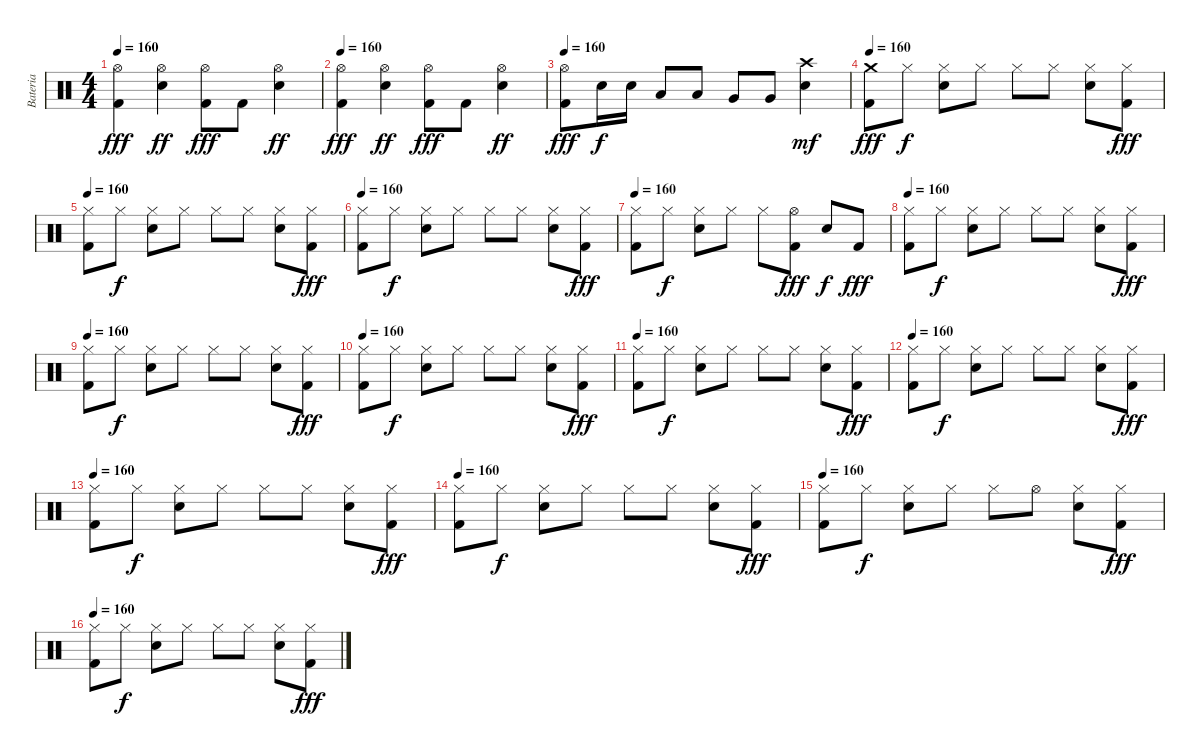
\track ("Bateria" "Bateria") {instrument percussion}
\staff {score}
\articulation defaults
\ts (4 4)
\tempo 160
\clef neutral
\ks c
("Hi-Hat (open)" "Kick (hit) 2").4{dy fff} ("Hi-Hat (open)" "Electric Snare (hit)").4{dy ff} ("Hi-Hat (open)" "Kick (hit) 2").8{dy fff} "Kick (hit) 2".8 ("Hi-Hat (open)" "Electric Snare (hit)").4{dy ff} |
\tempo 160
("Hi-Hat (open)" "Kick (hit) 2").4{dy fff} ("Hi-Hat (open)" "Electric Snare (hit)").4{dy ff} ("Hi-Hat (open)" "Kick (hit) 2").8{dy fff} "Kick (hit) 2".8 ("Hi-Hat (open)" "Electric Snare (hit)").4{dy ff} |
\tempo 160
("Hi-Hat (open)" "Kick (hit) 2").8{dy fff} "Electric Snare (hit)".16{dy f} "Electric Snare (hit)".16 "Low Tom (hit)".8 "Low Tom (hit)".8 "Very Low Tom (hit)".8 "Very Low Tom (hit)".8 ("Crash high (hit)" "Electric Snare (hit)").4{dy mf} |
\tempo 160
("Crash medium (hit)" "Kick (hit) 2").8{dy fff} "Hi-Hat (closed)".8{dy f} ("Hi-Hat (closed)" "Snare (hit) 2").8 "Hi-Hat (closed)".8 "Hi-Hat (closed)".8 "Hi-Hat (closed)".8 ("Hi-Hat (closed)" "Snare (hit) 2").8 ("Hi-Hat (closed)" "Kick (hit) 2").8{dy fff} |
\tempo 160
("Hi-Hat (closed)" "Kick (hit) 2").8 "Hi-Hat (closed)".8{dy f} ("Hi-Hat (closed)" "Snare (hit) 2").8 "Hi-Hat (closed)".8 "Hi-Hat (closed)".8 "Hi-Hat (closed)".8 ("Hi-Hat (closed)" "Snare (hit) 2").8 ("Hi-Hat (closed)" "Kick (hit) 2").8{dy fff} |
\tempo 160
("Hi-Hat (closed)" "Kick (hit) 2").8 "Hi-Hat (closed)".8{dy f} ("Hi-Hat (closed)" "Snare (hit) 2").8 "Hi-Hat (closed)".8 "Hi-Hat (closed)".8 "Hi-Hat (closed)".8 ("Hi-Hat (closed)" "Snare (hit) 2").8 ("Hi-Hat (closed)" "Kick (hit) 2").8{dy fff} |
\tempo 160
("Hi-Hat (closed)" "Kick (hit) 2").8 "Hi-Hat (closed)".8{dy f} ("Hi-Hat (closed)" "Snare (hit) 2").8 "Hi-Hat (closed)".8 "Hi-Hat (closed)".8 ("Hi-Hat (open)" "Kick (hit) 2").8{dy fff} "Snare (hit) 2".8{dy f} "Kick (hit) 2".8{dy fff} |
\tempo 160
("Hi-Hat (closed)" "Kick (hit) 2").8 "Hi-Hat (closed)".8{dy f} ("Hi-Hat (closed)" "Snare (hit) 2").8 "Hi-Hat (closed)".8 "Hi-Hat (closed)".8 "Hi-Hat (closed)".8 ("Hi-Hat (closed)" "Snare (hit) 2").8 ("Hi-Hat (closed)" "Kick (hit) 2").8{dy fff} |
\tempo 160
("Hi-Hat (closed)" "Kick (hit) 2").8 "Hi-Hat (closed)".8{dy f} ("Hi-Hat (closed)" "Snare (hit) 2").8 "Hi-Hat (closed)".8 "Hi-Hat (closed)".8 "Hi-Hat (closed)".8 ("Hi-Hat (closed)" "Snare (hit) 2").8 ("Hi-Hat (closed)" "Kick (hit) 2").8{dy fff} |
\tempo 160
("Hi-Hat (closed)" "Kick (hit) 2").8 "Hi-Hat (closed)".8{dy f} ("Hi-Hat (closed)" "Snare (hit) 2").8 "Hi-Hat (closed)".8 "Hi-Hat (closed)".8 "Hi-Hat (closed)".8 ("Hi-Hat (closed)" "Snare (hit) 2").8 ("Hi-Hat (closed)" "Kick (hit) 2").8{dy fff} |
\tempo 160
("Hi-Hat (closed)" "Kick (hit) 2").8 "Hi-Hat (closed)".8{dy f} ("Hi-Hat (closed)" "Snare (hit) 2").8 "Hi-Hat (closed)".8 "Hi-Hat (closed)".8 "Hi-Hat (closed)".8 ("Hi-Hat (closed)" "Snare (hit) 2").8 ("Hi-Hat (closed)" "Kick (hit) 2").8{dy fff} |
\tempo 160
("Hi-Hat (closed)" "Kick (hit) 2").8 "Hi-Hat (closed)".8{dy f} ("Hi-Hat (closed)" "Snare (hit) 2").8 "Hi-Hat (closed)".8 "Hi-Hat (closed)".8 "Hi-Hat (closed)".8 ("Hi-Hat (closed)" "Snare (hit) 2").8 ("Hi-Hat (closed)" "Kick (hit) 2").8{dy fff} |
\tempo 160
("Hi-Hat (closed)" "Kick (hit) 2").8 "Hi-Hat (closed)".8{dy f} ("Hi-Hat (closed)" "Snare (hit) 2").8 "Hi-Hat (closed)".8 "Hi-Hat (closed)".8 "Hi-Hat (closed)".8 ("Hi-Hat (closed)" "Snare (hit) 2").8 ("Hi-Hat (closed)" "Kick (hit) 2").8{dy fff} |
\tempo 160
("Hi-Hat (closed)" "Kick (hit) 2").8 "Hi-Hat (closed)".8{dy f} ("Hi-Hat (closed)" "Snare (hit) 2").8 "Hi-Hat (closed)".8 "Hi-Hat (closed)".8 "Hi-Hat (closed)".8 ("Hi-Hat (closed)" "Snare (hit) 2").8 ("Hi-Hat (closed)" "Kick (hit) 2").8{dy fff} |
\tempo 160
("Hi-Hat (closed)" "Kick (hit) 2").8 "Hi-Hat (closed)".8{dy f} ("Hi-Hat (closed)" "Snare (hit) 2").8 "Hi-Hat (closed)".8 "Hi-Hat (closed)".8 "Hi-Hat (open)".8 ("Hi-Hat (closed)" "Snare (hit) 2").8 ("Hi-Hat (closed)" "Kick (hit) 2").8{dy fff} |
\tempo 160
("Hi-Hat (closed)" "Kick (hit) 2").8 "Hi-Hat (closed)".8{dy f} ("Hi-Hat (closed)" "Snare (hit) 2").8 "Hi-Hat (closed)".8 "Hi-Hat (closed)".8 "Hi-Hat (closed)".8 ("Hi-Hat (closed)" "Snare (hit) 2").8 ("Hi-Hat (closed)" "Kick (hit) 2").8{dy fff}
